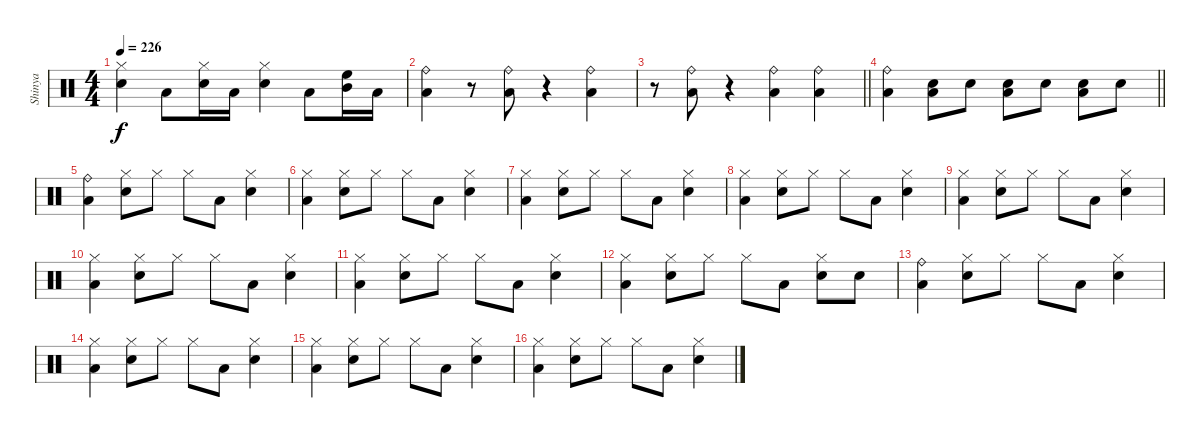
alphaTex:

\track ("Shinya" "Shinya") {instrument percussion}
\staff {score}
\articulation defaults
\ts (4 4)
\tempo 226
\clef neutral
\ks c
("Hi-Hat (closed)" "Snare (hit) 2").4{dy f} "Low Floor Tom (hit)".8 ("Hi-Hat (closed)" "Snare (hit) 2").16 "Low Floor Tom (hit)".16 ("Snare (hit) 2" "Hi-Hat (closed)").4 "Low Floor Tom (hit)".8 ("High Floor Tom (hit)" "Mid Tom (hit)").16 "Low Floor Tom (hit)".16 |
("Ride (bell)" "Low Floor Tom (hit)").4 r.8 ("Ride (bell)" "Low Floor Tom (hit)").8 r.4 ("Ride (bell)" "Low Floor Tom (hit)").4 |
\barLineRight lightlight
r.8 ("Ride (bell)" "Low Floor Tom (hit)").8 r.4 ("Ride (bell)" "Low Floor Tom (hit)").4 ("Ride (bell)" "Low Floor Tom (hit)").4 |
\barLineRight lightlight
("Ride (bell)" "Low Floor Tom (hit)").4 ("Low Floor Tom (hit)" "Snare (hit) 2").8 "Snare (hit) 2".8 ("Snare (hit) 2" "Low Floor Tom (hit)").8 "Snare (hit) 2".8 ("Low Floor Tom (hit)" "Snare (hit) 2").8 "Snare (hit) 2".8 |
("Ride (bell)" "Low Floor Tom (hit)").4 ("Hi-Hat (closed)" "Snare (hit) 2").8 "Hi-Hat (closed)".8 "Hi-Hat (closed)".8 "Low Floor Tom (hit)".8 ("Hi-Hat (closed)" "Snare (hit) 2").4 |
("Hi-Hat (closed)" "Low Floor Tom (hit)").4 ("Hi-Hat (closed)" "Snare (hit) 2").8 "Hi-Hat (closed)".8 "Hi-Hat (closed)".8 "Low Floor Tom (hit)".8 ("Hi-Hat (closed)" "Snare (hit) 2").4 |
("Hi-Hat (closed)" "Low Floor Tom (hit)").4 ("Hi-Hat (closed)" "Snare (hit) 2").8 "Hi-Hat (closed)".8 "Hi-Hat (closed)".8 "Low Floor Tom (hit)".8 ("Hi-Hat (closed)" "Snare (hit) 2").4 |
("Hi-Hat (closed)" "Low Floor Tom (hit)").4 ("Hi-Hat (closed)" "Snare (hit) 2").8 "Hi-Hat (closed)".8 "Hi-Hat (closed)".8 "Low Floor Tom (hit)".8 ("Hi-Hat (closed)" "Snare (hit) 2").4 |
("Hi-Hat (closed)" "Low Floor Tom (hit)").4 ("Hi-Hat (closed)" "Snare (hit) 2").8 "Hi-Hat (closed)".8 "Hi-Hat (closed)".8 "Low Floor Tom (hit)".8 ("Hi-Hat (closed)" "Snare (hit) 2").4 |
("Hi-Hat (closed)" "Low Floor Tom (hit)").4 ("Hi-Hat (closed)" "Snare (hit) 2").8 "Hi-Hat (closed)".8 "Hi-Hat (closed)".8 "Low Floor Tom (hit)".8 ("Hi-Hat (closed)" "Snare (hit) 2").4 |
("Hi-Hat (closed)" "Low Floor Tom (hit)").4 ("Hi-Hat (closed)" "Snare (hit) 2").8 "Hi-Hat (closed)".8 "Hi-Hat (closed)".8 "Low Floor Tom (hit)".8 ("Hi-Hat (closed)" "Snare (hit) 2").4 |
("Hi-Hat (closed)" "Low Floor Tom (hit)").4 ("Hi-Hat (closed)" "Snare (hit) 2").8 "Hi-Hat (closed)".8 "Hi-Hat (closed)".8 "Low Floor Tom (hit)".8 ("Hi-Hat (closed)" "Snare (hit) 2").8 "Snare (hit) 2".8 |
("Ride (bell)" "Low Floor Tom (hit)").4 ("Hi-Hat (closed)" "Snare (hit) 2").8 "Hi-Hat (closed)".8 "Hi-Hat (closed)".8 "Low Floor Tom (hit)".8 ("Hi-Hat (closed)" "Snare (hit) 2").4 |
("Hi-Hat (closed)" "Low Floor Tom (hit)").4 ("Hi-Hat (closed)" "Snare (hit) 2").8 "Hi-Hat (closed)".8 "Hi-Hat (closed)".8 "Low Floor Tom (hit)".8 ("Hi-Hat (closed)" "Snare (hit) 2").4 |
("Hi-Hat (closed)" "Low Floor Tom (hit)").4 ("Hi-Hat (closed)" "Snare (hit) 2").8 "Hi-Hat (closed)".8 "Hi-Hat (closed)".8 "Low Floor Tom (hit)".8 ("Hi-Hat (closed)" "Snare (hit) 2").4 |
("Hi-Hat (closed)" "Low Floor Tom (hit)").4 ("Hi-Hat (closed)" "Snare (hit) 2").8 "Hi-Hat (closed)".8 "Hi-Hat (closed)".8 "Low Floor Tom (hit)".8 ("Hi-Hat (closed)" "Snare (hit) 2").4
